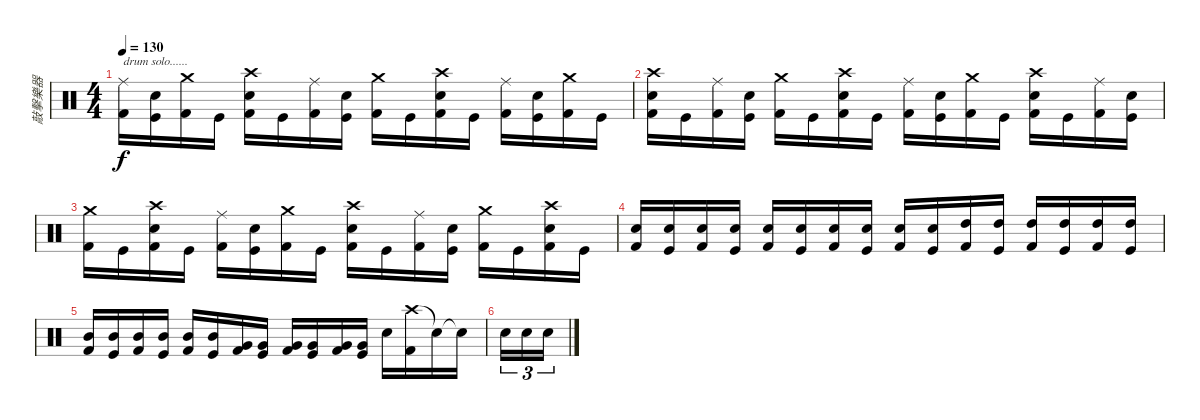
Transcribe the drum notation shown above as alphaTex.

\track ("敲擊樂器" "敲擊樂器") {instrument percussion}
\staff {score}
\articulation defaults
\ts (4 4)
\tempo 130
\clef neutral
\ks c
("Ride (middle)" "Kick (hit) 2").16{txt "drum solo......" dy f} ("Snare (hit) 2" "Kick (hit)").16 ("Crash medium (hit)" "Kick (hit) 2").16 "Kick (hit)".16 ("Crash high (hit)" "Snare (hit) 2" "Kick (hit) 2").16 "Kick (hit)".16 ("Ride (middle)" "Kick (hit) 2").16 ("Snare (hit) 2" "Kick (hit)").16 ("Crash medium (hit)" "Kick (hit) 2").16 "Kick (hit)".16 ("Crash high (hit)" "Snare (hit) 2" "Kick (hit) 2").16 "Kick (hit)".16 ("Ride (middle)" "Kick (hit) 2").16 ("Snare (hit) 2" "Kick (hit)").16 ("Crash medium (hit)" "Kick (hit) 2").16 "Kick (hit)".16 |
("Crash high (hit)" "Snare (hit) 2" "Kick (hit) 2").16 "Kick (hit)".16 ("Ride (middle)" "Kick (hit) 2").16 ("Snare (hit) 2" "Kick (hit)").16 ("Crash medium (hit)" "Kick (hit) 2").16 "Kick (hit)".16 ("Crash high (hit)" "Snare (hit) 2" "Kick (hit) 2").16 "Kick (hit)".16 ("Ride (middle)" "Kick (hit) 2").16 ("Snare (hit) 2" "Kick (hit)").16 ("Crash medium (hit)" "Kick (hit) 2").16 "Kick (hit)".16 ("Crash high (hit)" "Snare (hit) 2" "Kick (hit) 2").16 "Kick (hit)".16 ("Ride (middle)" "Kick (hit) 2").16 ("Snare (hit) 2" "Kick (hit)").16 |
("Crash medium (hit)" "Kick (hit) 2").16 "Kick (hit)".16 ("Crash high (hit)" "Snare (hit) 2" "Kick (hit) 2").16 "Kick (hit)".16 ("Ride (middle)" "Kick (hit) 2").16 ("Snare (hit) 2" "Kick (hit)").16 ("Crash medium (hit)" "Kick (hit) 2").16 "Kick (hit)".16 ("Crash high (hit)" "Snare (hit) 2" "Kick (hit) 2").16 "Kick (hit)".16 ("Ride (middle)" "Kick (hit) 2").16 ("Snare (hit) 2" "Kick (hit)").16 ("Crash medium (hit)" "Kick (hit) 2").16 "Kick (hit)".16 ("Crash high (hit)" "Snare (hit) 2" "Kick (hit) 2").16 "Kick (hit)".16 |
("Snare (hit) 2" "Kick (hit) 2").16 ("Snare (hit) 2" "Kick (hit)").16 ("Snare (hit) 2" "Kick (hit) 2").16 ("Snare (hit) 2" "Kick (hit)").16 ("Snare (hit) 2" "Kick (hit) 2").16 ("Snare (hit) 2" "Kick (hit)").16 ("Snare (hit) 2" "Kick (hit) 2").16 ("Snare (hit) 2" "Kick (hit)").16 ("Snare (hit) 2" "Kick (hit) 2").16 ("Snare (hit) 2" "Kick (hit)").16 ("High Tom (hit)" "Kick (hit) 2").16 ("High Tom (hit)" "Kick (hit)").16 ("High Tom (hit)" "Kick (hit) 2").16 ("High Tom (hit)" "Kick (hit)").16 ("High Tom (hit)" "Kick (hit) 2").16 ("High Tom (hit)" "Kick (hit)").16 |
("Mid Tom (hit)" "Kick (hit) 2").16 ("Mid Tom (hit)" "Kick (hit)").16 ("Mid Tom (hit)" "Kick (hit) 2").16 ("Mid Tom (hit)" "Kick (hit)").16 ("Mid Tom (hit)" "Kick (hit) 2").16 ("Mid Tom (hit)" "Kick (hit)").16 ("Very Low Tom (hit)" "Kick (hit) 2").16 ("Very Low Tom (hit)" "Kick (hit)").16 ("Very Low Tom (hit)" "Kick (hit) 2").16 ("Very Low Tom (hit)" "Kick (hit)").16 ("Very Low Tom (hit)" "Kick (hit) 2").16 ("Very Low Tom (hit)" "Kick (hit)").16 "Snare (hit) 2".16 ("Crash high (hit)" "Kick (hit) 2").16 "Snare (hit)"{t}.16 "Snare (hit)"{t}.16 |
"Snare (hit) 2".16{tu (3 2)} "Snare (hit) 2".16{tu (3 2)} "Snare (hit) 2".16{tu (3 2)}
